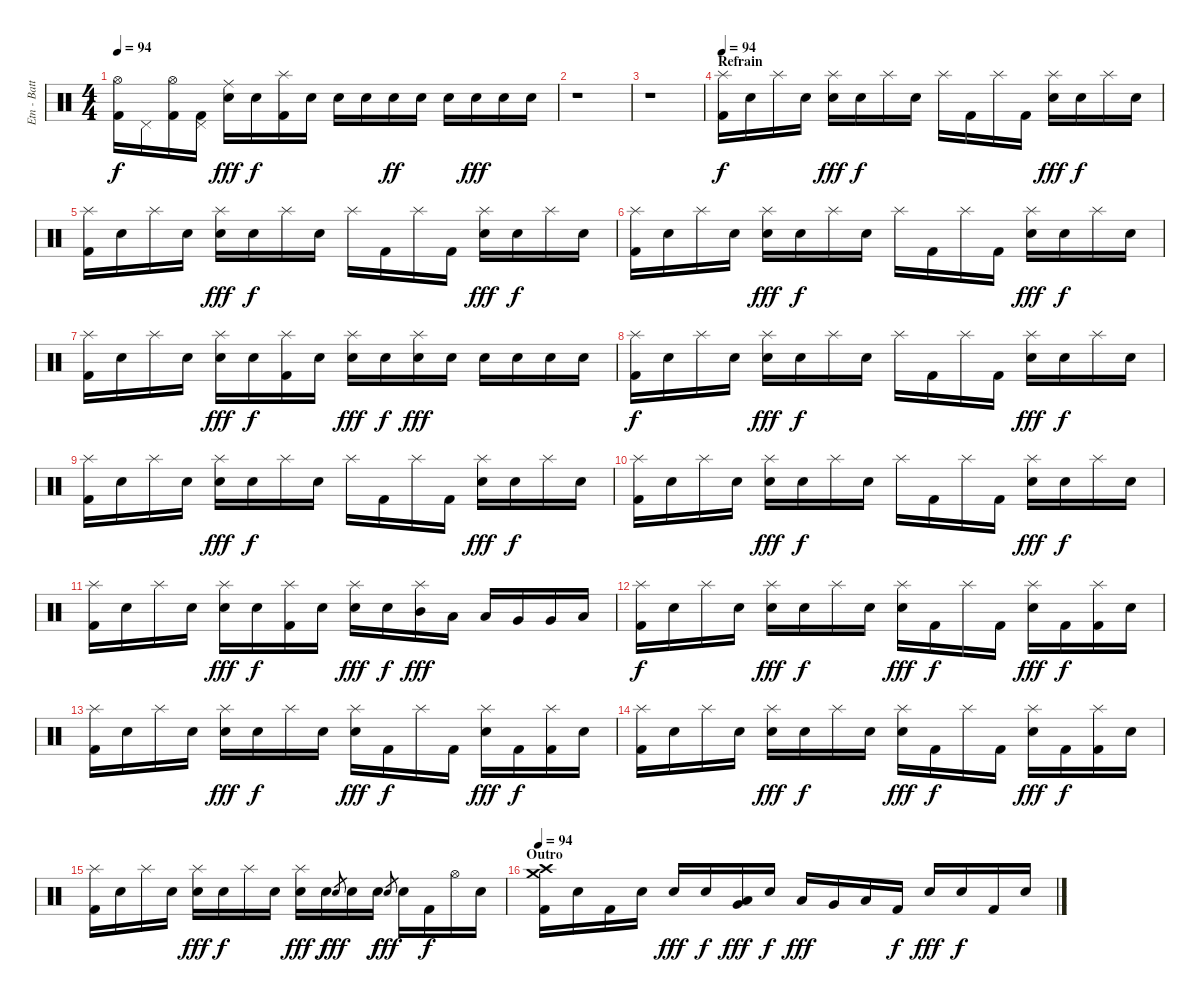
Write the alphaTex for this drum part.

\track ("Etn - Batterie" "Etn - Batt") {instrument percussion}
\staff {score}
\articulation defaults
\ts (4 4)
\tempo 94
\clef neutral
\ks c
("Hi-Hat (open)" "Kick (hit) 2").16{dy f} "Pedal Hi-Hat (hit)".16 ("Hi-Hat (open)" "Kick (hit) 2").16 ("Pedal Hi-Hat (hit)" "Kick (hit) 2").16 ("Ride (middle)" "Electric Snare (hit)").16{dy fff} "Snare (hit)".16{dy f} ("Splash (hit)" "Kick (hit) 2").16 "Snare (hit)".16 "Electric Snare (hit)".16 "Electric Snare (hit)".16 "Electric Snare (hit)".16{dy ff} "Electric Snare (hit)".16 "Electric Snare (hit)".16 "Electric Snare (hit)".16{dy fff} "Electric Snare (hit)".16 "Electric Snare (hit)".16 |
\section ("" "")
r.1 |
r.1 |
\section ("" "Refrain")
\tempo 94
("Splash (hit)" "Kick (hit) 2").16{dy f volume 16 balance 8} "Snare (hit)".16 "Splash (hit)".16 "Snare (hit)".16 ("Splash (hit)" "Electric Snare (hit)").16{dy fff} "Snare (hit)".16{dy f} "Splash (hit)".16 "Snare (hit)".16 "Splash (hit)".16 "Kick (hit) 2".16 "Splash (hit)".16 "Kick (hit) 2".16 ("Splash (hit)" "Electric Snare (hit)").16{dy fff} "Snare (hit)".16{dy f} "Splash (hit)".16 "Snare (hit)".16 |
("Splash (hit)" "Kick (hit) 2").16 "Snare (hit)".16 "Splash (hit)".16 "Snare (hit)".16 ("Splash (hit)" "Electric Snare (hit)").16{dy fff} "Snare (hit)".16{dy f} "Splash (hit)".16 "Snare (hit)".16 "Splash (hit)".16 "Kick (hit) 2".16 "Splash (hit)".16 "Kick (hit) 2".16 ("Splash (hit)" "Electric Snare (hit)").16{dy fff} "Snare (hit)".16{dy f} "Splash (hit)".16 "Snare (hit)".16 |
("Splash (hit)" "Kick (hit) 2").16 "Snare (hit)".16 "Splash (hit)".16 "Snare (hit)".16 ("Splash (hit)" "Electric Snare (hit)").16{dy fff} "Snare (hit)".16{dy f} "Splash (hit)".16 "Snare (hit)".16 "Splash (hit)".16 "Kick (hit) 2".16 "Splash (hit)".16 "Kick (hit) 2".16 ("Splash (hit)" "Electric Snare (hit)").16{dy fff} "Snare (hit)".16{dy f} "Splash (hit)".16 "Snare (hit)".16 |
("Splash (hit)" "Kick (hit) 2").16 "Snare (hit)".16 "Splash (hit)".16 "Snare (hit)".16 ("Splash (hit)" "Electric Snare (hit)").16{dy fff} "Snare (hit)".16{dy f} ("Splash (hit)" "Kick (hit) 2").16 "Snare (hit)".16 ("Splash (hit)" "Electric Snare (hit)").16{dy fff} "Snare (hit)".16{dy f} ("Splash (hit)" "Electric Snare (hit)").16{dy fff} "Electric Snare (hit)".16 "Electric Snare (hit)".16 "Electric Snare (hit)".16 "Electric Snare (hit)".16 "Electric Snare (hit)".16 |
("Splash (hit)" "Kick (hit) 2").16{dy f} "Snare (hit)".16 "Splash (hit)".16 "Snare (hit)".16 ("Splash (hit)" "Electric Snare (hit)").16{dy fff} "Snare (hit)".16{dy f} "Splash (hit)".16 "Snare (hit)".16 "Splash (hit)".16 "Kick (hit) 2".16 "Splash (hit)".16 "Kick (hit) 2".16 ("Splash (hit)" "Electric Snare (hit)").16{dy fff} "Snare (hit)".16{dy f} "Splash (hit)".16 "Snare (hit)".16 |
("Splash (hit)" "Kick (hit) 2").16 "Snare (hit)".16 "Splash (hit)".16 "Snare (hit)".16 ("Splash (hit)" "Electric Snare (hit)").16{dy fff} "Snare (hit)".16{dy f} "Splash (hit)".16 "Snare (hit)".16 "Splash (hit)".16 "Kick (hit) 2".16 "Splash (hit)".16 "Kick (hit) 2".16 ("Splash (hit)" "Electric Snare (hit)").16{dy fff} "Snare (hit)".16{dy f} "Splash (hit)".16 "Snare (hit)".16 |
("Splash (hit)" "Kick (hit) 2").16 "Snare (hit)".16 "Splash (hit)".16 "Snare (hit)".16 ("Splash (hit)" "Electric Snare (hit)").16{dy fff} "Snare (hit)".16{dy f} "Splash (hit)".16 "Snare (hit)".16 "Splash (hit)".16 "Kick (hit) 2".16 "Splash (hit)".16 "Kick (hit) 2".16 ("Splash (hit)" "Electric Snare (hit)").16{dy fff} "Snare (hit)".16{dy f} "Splash (hit)".16 "Snare (hit)".16 |
("Splash (hit)" "Kick (hit) 2").16 "Snare (hit)".16 "Splash (hit)".16 "Snare (hit)".16 ("Splash (hit)" "Electric Snare (hit)").16{dy fff} "Snare (hit)".16{dy f} ("Splash (hit)" "Kick (hit) 2").16 "Snare (hit)".16 ("Splash (hit)" "Electric Snare (hit)").16{dy fff} "Snare (hit)".16{dy f} ("Splash (hit)" "Mid Tom (hit)").16{dy fff} "Low Tom (hit)".16 "Low Tom (hit)".16 "Very Low Tom (hit)".16 "Very Low Tom (hit)".16 "Low Floor Tom (hit)".16 |
\section ("" "")
("Splash (hit)" "Kick (hit) 2").16{dy f} "Snare (hit)".16 "Splash (hit)".16 "Snare (hit)".16 ("Splash (hit)" "Electric Snare (hit)").16{dy fff} "Snare (hit)".16{dy f} "Splash (hit)".16 "Snare (hit)".16 ("Splash (hit)" "Electric Snare (hit)").16{dy fff} "Kick (hit) 2".16{dy f} "Splash (hit)".16 "Kick (hit) 2".16 ("Splash (hit)" "Electric Snare (hit)").16{dy fff} "Kick (hit) 2".16{dy f} ("Splash (hit)" "Kick (hit) 2").16 "Snare (hit)".16 |
("Splash (hit)" "Kick (hit) 2").16 "Snare (hit)".16 "Splash (hit)".16 "Snare (hit)".16 ("Splash (hit)" "Electric Snare (hit)").16{dy fff} "Snare (hit)".16{dy f} "Splash (hit)".16 "Snare (hit)".16 ("Splash (hit)" "Electric Snare (hit)").16{dy fff} "Kick (hit) 2".16{dy f} "Splash (hit)".16 "Kick (hit) 2".16 ("Splash (hit)" "Electric Snare (hit)").16{dy fff} "Kick (hit) 2".16{dy f} ("Splash (hit)" "Kick (hit) 2").16 "Snare (hit)".16 |
("Splash (hit)" "Kick (hit) 2").16 "Snare (hit)".16 "Splash (hit)".16 "Snare (hit)".16 ("Splash (hit)" "Electric Snare (hit)").16{dy fff} "Snare (hit)".16{dy f} "Splash (hit)".16 "Snare (hit)".16 ("Splash (hit)" "Electric Snare (hit)").16{dy fff} "Kick (hit) 2".16{dy f} "Splash (hit)".16 "Kick (hit) 2".16 ("Splash (hit)" "Electric Snare (hit)").16{dy fff} "Kick (hit) 2".16{dy f} ("Splash (hit)" "Kick (hit) 2").16 "Snare (hit)".16 |
("Splash (hit)" "Kick (hit) 2").16 "Snare (hit)".16 "Splash (hit)".16 "Snare (hit)".16 ("Splash (hit)" "Electric Snare (hit)").16{dy fff} "Snare (hit)".16{dy f} "Splash (hit)".16 "Snare (hit)".16 ("Splash (hit)" "Electric Snare (hit)").16{dy fff} "Snare (hit)".16{dy f} "Electric Snare (hit)".8{gr dy fff} "Electric Snare (hit)".16 "Snare (hit)".16{dy f} "Electric Snare (hit)".8{gr dy fff} "Electric Snare (hit)".16 "Kick (hit) 2".16{dy f} "Hi-Hat (open)".16 "Snare (hit)".16 |
\section ("" "Outro")
\tempo 94
("Crash medium (hit)" "Crash high (hit)" "Kick (hit) 2").16{volume 16 balance 8} "Snare (hit)".16 "Kick (hit) 2".16 "Snare (hit)".16 "Electric Snare (hit)".16{dy fff} "Snare (hit)".16{dy f} ("Low Tom (hit)" "Very Low Tom (hit)").16{dy fff} "Snare (hit)".16{dy f} "Low Tom (hit)".16{dy fff} "Very Low Tom (hit)".16 "Low Floor Tom (hit)".16 "Kick (hit) 2".16{dy f} "Electric Snare (hit)".16{dy fff} "Snare (hit)".16{dy f} "Kick (hit) 2".16 "Snare (hit)".16
